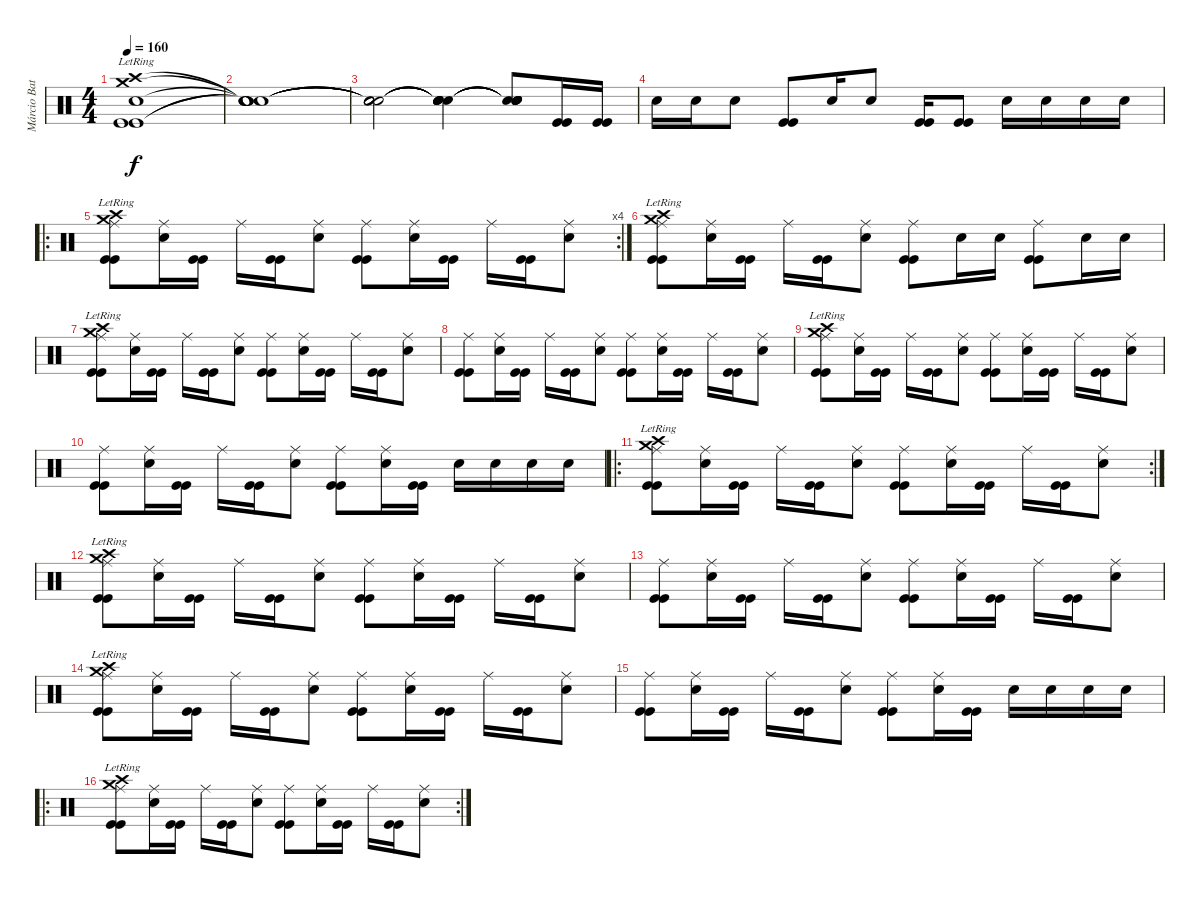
\track ("Márcio Batista" "Márcio Bat") {instrument percussion}
\staff {score}
\articulation defaults
\ts (4 4)
\tempo 160
\clef neutral
\ks c
("Crash high (hit)"{lr} "Crash medium (hit)"{lr} "Snare (hit) 2" "Kick (hit)" "Kick (hit)").1{dy f} |
("Snare (hit)"{t} "Snare (hit)"{t} "Snare (hit)"{t} "Snare (hit)"{t} "Snare (hit)"{t}).1 |
("Snare (hit)"{t} "Snare (hit)"{t} "Snare (hit)"{t} "Snare (hit)"{t} "Snare (hit)"{t}).2 ("Snare (hit)"{t} "Snare (hit)"{t} "Snare (hit)"{t} "Snare (hit)"{t} "Snare (hit)"{t}).4 ("Snare (hit)"{t} "Snare (hit)"{t} "Snare (hit)"{t} "Snare (hit)"{t} "Snare (hit)"{t}).8 ("Kick (hit)" "Kick (hit)").16 ("Kick (hit)" "Kick (hit)").16 |
"Snare (hit) 2".16 "Snare (hit) 2".16 "Snare (hit) 2".8 ("Kick (hit)" "Kick (hit)").8 "Snare (hit) 2".16 "Snare (hit) 2".8 ("Kick (hit)" "Kick (hit)").16 ("Kick (hit)" "Kick (hit)").8 "Snare (hit) 2".16 "Snare (hit) 2".16 "Snare (hit) 2".16 "Snare (hit) 2".16 |
\ro
\rc 4
("Crash high (hit)"{lr} "Crash medium (hit)"{lr} "Ride (middle)" "Kick (hit)" "Kick (hit)").8 ("Snare (hit) 2" "Ride (middle)").16 ("Kick (hit)" "Kick (hit)").16 "Ride (middle)".16 ("Kick (hit)" "Kick (hit)").16 ("Snare (hit) 2" "Ride (middle)").8 ("Ride (middle)" "Kick (hit)" "Kick (hit)").8 ("Snare (hit) 2" "Ride (middle)").16 ("Kick (hit)" "Kick (hit)").16 "Ride (middle)".16 ("Kick (hit)" "Kick (hit)").16 ("Snare (hit) 2" "Ride (middle)").8 |
("Crash high (hit)"{lr} "Crash medium (hit)"{lr} "Ride (middle)" "Kick (hit)" "Kick (hit)").8 ("Snare (hit) 2" "Ride (middle)").16 ("Kick (hit)" "Kick (hit)").16 "Ride (middle)".16 ("Kick (hit)" "Kick (hit)").16 ("Snare (hit) 2" "Ride (middle)").8 ("Ride (middle)" "Kick (hit)" "Kick (hit)").8 "Snare (hit) 2".16 "Snare (hit) 2".16 ("Ride (middle)" "Kick (hit)" "Kick (hit)").8 "Snare (hit) 2".16 "Snare (hit) 2".16 |
("Crash high (hit)"{lr} "Crash medium (hit)"{lr} "Ride (middle)" "Kick (hit)" "Kick (hit)").8 ("Snare (hit) 2" "Ride (middle)").16 ("Kick (hit)" "Kick (hit)").16 "Ride (middle)".16 ("Kick (hit)" "Kick (hit)").16 ("Snare (hit) 2" "Ride (middle)").8 ("Ride (middle)" "Kick (hit)" "Kick (hit)").8 ("Snare (hit) 2" "Ride (middle)").16 ("Kick (hit)" "Kick (hit)").16 "Ride (middle)".16 ("Kick (hit)" "Kick (hit)").16 ("Snare (hit) 2" "Ride (middle)").8 |
("Ride (middle)" "Kick (hit)" "Kick (hit)").8 ("Snare (hit) 2" "Ride (middle)").16 ("Kick (hit)" "Kick (hit)").16 "Ride (middle)".16 ("Kick (hit)" "Kick (hit)").16 ("Snare (hit) 2" "Ride (middle)").8 ("Ride (middle)" "Kick (hit)" "Kick (hit)").8 ("Snare (hit) 2" "Ride (middle)").16 ("Kick (hit)" "Kick (hit)").16 "Ride (middle)".16 ("Kick (hit)" "Kick (hit)").16 ("Snare (hit) 2" "Ride (middle)").8 |
("Crash high (hit)"{lr} "Crash medium (hit)"{lr} "Ride (middle)" "Kick (hit)" "Kick (hit)").8 ("Snare (hit) 2" "Ride (middle)").16 ("Kick (hit)" "Kick (hit)").16 "Ride (middle)".16 ("Kick (hit)" "Kick (hit)").16 ("Snare (hit) 2" "Ride (middle)").8 ("Ride (middle)" "Kick (hit)" "Kick (hit)").8 ("Snare (hit) 2" "Ride (middle)").16 ("Kick (hit)" "Kick (hit)").16 "Ride (middle)".16 ("Kick (hit)" "Kick (hit)").16 ("Snare (hit) 2" "Ride (middle)").8 |
("Ride (middle)" "Kick (hit)" "Kick (hit)").8 ("Snare (hit) 2" "Ride (middle)").16 ("Kick (hit)" "Kick (hit)").16 "Ride (middle)".16 ("Kick (hit)" "Kick (hit)").16 ("Snare (hit) 2" "Ride (middle)").8 ("Ride (middle)" "Kick (hit)" "Kick (hit)").8 ("Snare (hit) 2" "Ride (middle)").16 ("Kick (hit)" "Kick (hit)").16 "Snare (hit) 2".16 "Snare (hit) 2".16 "Snare (hit) 2".16 "Snare (hit) 2".16 |
\ro
\rc 2
("Crash high (hit)"{lr} "Crash medium (hit)"{lr} "Ride (middle)" "Kick (hit)" "Kick (hit)").8 ("Snare (hit) 2" "Ride (middle)").16 ("Kick (hit)" "Kick (hit)").16 "Ride (middle)".16 ("Kick (hit)" "Kick (hit)").16 ("Snare (hit) 2" "Ride (middle)").8 ("Ride (middle)" "Kick (hit)" "Kick (hit)").8 ("Snare (hit) 2" "Ride (middle)").16 ("Kick (hit)" "Kick (hit)").16 "Ride (middle)".16 ("Kick (hit)" "Kick (hit)").16 ("Snare (hit) 2" "Ride (middle)").8 |
("Crash high (hit)"{lr} "Crash medium (hit)"{lr} "Ride (middle)" "Kick (hit)" "Kick (hit)").8 ("Snare (hit) 2" "Ride (middle)").16 ("Kick (hit)" "Kick (hit)").16 "Ride (middle)".16 ("Kick (hit)" "Kick (hit)").16 ("Snare (hit) 2" "Ride (middle)").8 ("Ride (middle)" "Kick (hit)" "Kick (hit)").8 ("Snare (hit) 2" "Ride (middle)").16 ("Kick (hit)" "Kick (hit)").16 "Ride (middle)".16 ("Kick (hit)" "Kick (hit)").16 ("Snare (hit) 2" "Ride (middle)").8 |
("Ride (middle)" "Kick (hit)" "Kick (hit)").8 ("Snare (hit) 2" "Ride (middle)").16 ("Kick (hit)" "Kick (hit)").16 "Ride (middle)".16 ("Kick (hit)" "Kick (hit)").16 ("Snare (hit) 2" "Ride (middle)").8 ("Ride (middle)" "Kick (hit)" "Kick (hit)").8 ("Snare (hit) 2" "Ride (middle)").16 ("Kick (hit)" "Kick (hit)").16 "Ride (middle)".16 ("Kick (hit)" "Kick (hit)").16 ("Snare (hit) 2" "Ride (middle)").8 |
("Crash high (hit)"{lr} "Crash medium (hit)"{lr} "Ride (middle)" "Kick (hit)" "Kick (hit)").8 ("Snare (hit) 2" "Ride (middle)").16 ("Kick (hit)" "Kick (hit)").16 "Ride (middle)".16 ("Kick (hit)" "Kick (hit)").16 ("Snare (hit) 2" "Ride (middle)").8 ("Ride (middle)" "Kick (hit)" "Kick (hit)").8 ("Snare (hit) 2" "Ride (middle)").16 ("Kick (hit)" "Kick (hit)").16 "Ride (middle)".16 ("Kick (hit)" "Kick (hit)").16 ("Snare (hit) 2" "Ride (middle)").8 |
("Ride (middle)" "Kick (hit)" "Kick (hit)").8 ("Snare (hit) 2" "Ride (middle)").16 ("Kick (hit)" "Kick (hit)").16 "Ride (middle)".16 ("Kick (hit)" "Kick (hit)").16 ("Snare (hit) 2" "Ride (middle)").8 ("Ride (middle)" "Kick (hit)" "Kick (hit)").8 ("Snare (hit) 2" "Ride (middle)").16 ("Kick (hit)" "Kick (hit)").16 "Snare (hit) 2".16 "Snare (hit) 2".16 "Snare (hit) 2".16 "Snare (hit) 2".16 |
\ro
\rc 2
("Crash high (hit)"{lr} "Crash medium (hit)"{lr} "Ride (middle)" "Kick (hit)" "Kick (hit)").8 ("Snare (hit) 2" "Ride (middle)").16 ("Kick (hit)" "Kick (hit)").16 "Ride (middle)".16 ("Kick (hit)" "Kick (hit)").16 ("Snare (hit) 2" "Ride (middle)").8 ("Ride (middle)" "Kick (hit)" "Kick (hit)").8 ("Snare (hit) 2" "Ride (middle)").16 ("Kick (hit)" "Kick (hit)").16 "Ride (middle)".16 ("Kick (hit)" "Kick (hit)").16 ("Snare (hit) 2" "Ride (middle)").8
